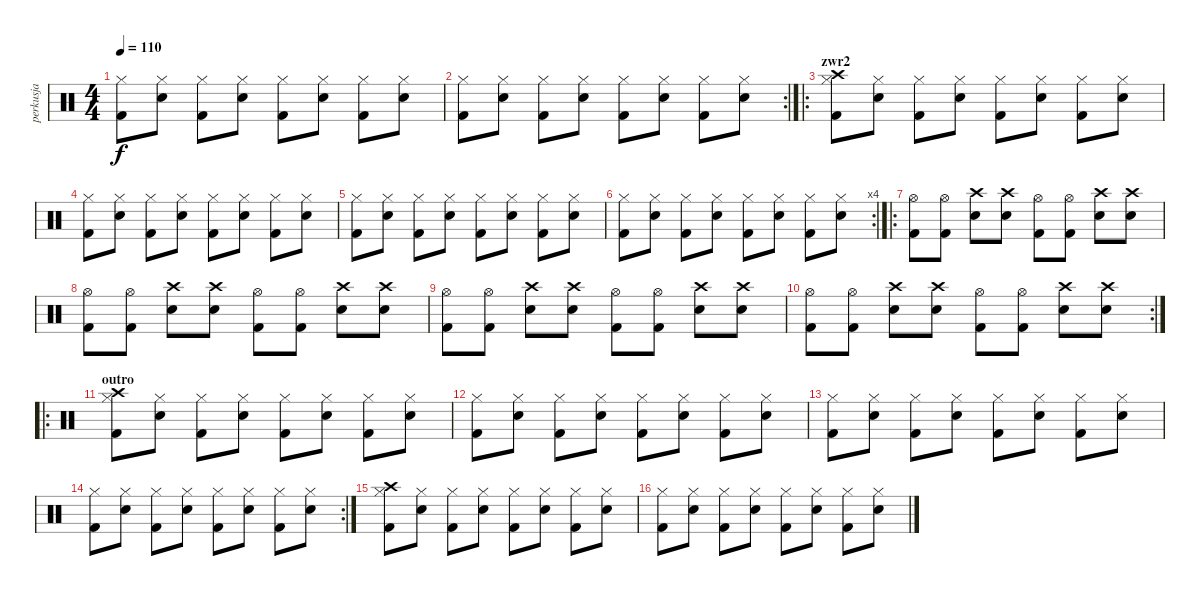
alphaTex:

\track ("perkusja" "perkusja") {instrument percussion}
\staff {score}
\articulation defaults
\ts (4 4)
\tempo 110
\clef neutral
\ks c
("Hi-Hat (closed)" "Kick (hit) 2").8{dy f} ("Hi-Hat (closed)" "Electric Snare (hit)").8 ("Hi-Hat (closed)" "Kick (hit) 2").8 ("Hi-Hat (closed)" "Electric Snare (hit)").8 ("Hi-Hat (closed)" "Kick (hit) 2").8 ("Hi-Hat (closed)" "Electric Snare (hit)").8 ("Hi-Hat (closed)" "Kick (hit) 2").8 ("Hi-Hat (closed)" "Electric Snare (hit)").8 |
\rc 2
("Hi-Hat (closed)" "Kick (hit) 2").8 ("Hi-Hat (closed)" "Electric Snare (hit)").8 ("Hi-Hat (closed)" "Kick (hit) 2").8 ("Hi-Hat (closed)" "Electric Snare (hit)").8 ("Hi-Hat (closed)" "Kick (hit) 2").8 ("Hi-Hat (closed)" "Electric Snare (hit)").8 ("Hi-Hat (closed)" "Kick (hit) 2").8 ("Hi-Hat (closed)" "Electric Snare (hit)").8 |
\ro
\section ("" "zwr2")
("Hi-Hat (closed)" "Kick (hit) 2" "Crash high (hit)").8 ("Hi-Hat (closed)" "Electric Snare (hit)").8 ("Hi-Hat (closed)" "Kick (hit) 2").8 ("Hi-Hat (closed)" "Electric Snare (hit)").8 ("Hi-Hat (closed)" "Kick (hit) 2").8 ("Hi-Hat (closed)" "Electric Snare (hit)").8 ("Hi-Hat (closed)" "Kick (hit) 2").8 ("Hi-Hat (closed)" "Electric Snare (hit)").8 |
("Hi-Hat (closed)" "Kick (hit) 2").8 ("Hi-Hat (closed)" "Electric Snare (hit)").8 ("Hi-Hat (closed)" "Kick (hit) 2").8 ("Hi-Hat (closed)" "Electric Snare (hit)").8 ("Hi-Hat (closed)" "Kick (hit) 2").8 ("Hi-Hat (closed)" "Electric Snare (hit)").8 ("Hi-Hat (closed)" "Kick (hit) 2").8 ("Hi-Hat (closed)" "Electric Snare (hit)").8 |
("Hi-Hat (closed)" "Kick (hit) 2").8 ("Hi-Hat (closed)" "Electric Snare (hit)").8 ("Hi-Hat (closed)" "Kick (hit) 2").8 ("Hi-Hat (closed)" "Electric Snare (hit)").8 ("Hi-Hat (closed)" "Kick (hit) 2").8 ("Hi-Hat (closed)" "Electric Snare (hit)").8 ("Hi-Hat (closed)" "Kick (hit) 2").8 ("Hi-Hat (closed)" "Electric Snare (hit)").8 |
\rc 4
("Hi-Hat (closed)" "Kick (hit) 2").8 ("Hi-Hat (closed)" "Electric Snare (hit)").8 ("Hi-Hat (closed)" "Kick (hit) 2").8 ("Hi-Hat (closed)" "Electric Snare (hit)").8 ("Hi-Hat (closed)" "Kick (hit) 2").8 ("Hi-Hat (closed)" "Electric Snare (hit)").8 ("Hi-Hat (closed)" "Kick (hit) 2").8 ("Hi-Hat (closed)" "Electric Snare (hit)").8 |
\ro
("Hi-Hat (open)" "Kick (hit) 2").8 ("Hi-Hat (open)" "Kick (hit) 2").8 ("Crash high (hit)" "Electric Snare (hit)").8 ("Crash high (hit)" "Electric Snare (hit)").8 ("Hi-Hat (open)" "Kick (hit) 2").8 ("Hi-Hat (open)" "Kick (hit) 2").8 ("Crash high (hit)" "Electric Snare (hit)").8 ("Crash high (hit)" "Electric Snare (hit)").8 |
("Hi-Hat (open)" "Kick (hit) 2").8 ("Hi-Hat (open)" "Kick (hit) 2").8 ("Crash high (hit)" "Electric Snare (hit)").8 ("Crash high (hit)" "Electric Snare (hit)").8 ("Hi-Hat (open)" "Kick (hit) 2").8 ("Hi-Hat (open)" "Kick (hit) 2").8 ("Crash high (hit)" "Electric Snare (hit)").8 ("Crash high (hit)" "Electric Snare (hit)").8 |
("Hi-Hat (open)" "Kick (hit) 2").8 ("Hi-Hat (open)" "Kick (hit) 2").8 ("Crash high (hit)" "Electric Snare (hit)").8 ("Crash high (hit)" "Electric Snare (hit)").8 ("Hi-Hat (open)" "Kick (hit) 2").8 ("Hi-Hat (open)" "Kick (hit) 2").8 ("Crash high (hit)" "Electric Snare (hit)").8 ("Crash high (hit)" "Electric Snare (hit)").8 |
\rc 2
("Hi-Hat (open)" "Kick (hit) 2").8 ("Hi-Hat (open)" "Kick (hit) 2").8 ("Crash high (hit)" "Electric Snare (hit)").8 ("Crash high (hit)" "Electric Snare (hit)").8 ("Hi-Hat (open)" "Kick (hit) 2").8 ("Hi-Hat (open)" "Kick (hit) 2").8 ("Crash high (hit)" "Electric Snare (hit)").8 ("Crash high (hit)" "Electric Snare (hit)").8 |
\ro
\section ("" "outro")
("Hi-Hat (closed)" "Kick (hit) 2" "Crash high (hit)").8 ("Hi-Hat (closed)" "Electric Snare (hit)").8 ("Hi-Hat (closed)" "Kick (hit) 2").8 ("Hi-Hat (closed)" "Electric Snare (hit)").8 ("Hi-Hat (closed)" "Kick (hit) 2").8 ("Hi-Hat (closed)" "Electric Snare (hit)").8 ("Hi-Hat (closed)" "Kick (hit) 2").8 ("Hi-Hat (closed)" "Electric Snare (hit)").8 |
("Hi-Hat (closed)" "Kick (hit) 2").8 ("Hi-Hat (closed)" "Electric Snare (hit)").8 ("Hi-Hat (closed)" "Kick (hit) 2").8 ("Hi-Hat (closed)" "Electric Snare (hit)").8 ("Hi-Hat (closed)" "Kick (hit) 2").8 ("Hi-Hat (closed)" "Electric Snare (hit)").8 ("Hi-Hat (closed)" "Kick (hit) 2").8 ("Hi-Hat (closed)" "Electric Snare (hit)").8 |
("Hi-Hat (closed)" "Kick (hit) 2").8 ("Hi-Hat (closed)" "Electric Snare (hit)").8 ("Hi-Hat (closed)" "Kick (hit) 2").8 ("Hi-Hat (closed)" "Electric Snare (hit)").8 ("Hi-Hat (closed)" "Kick (hit) 2").8 ("Hi-Hat (closed)" "Electric Snare (hit)").8 ("Hi-Hat (closed)" "Kick (hit) 2").8 ("Hi-Hat (closed)" "Electric Snare (hit)").8 |
\rc 2
("Hi-Hat (closed)" "Kick (hit) 2").8 ("Hi-Hat (closed)" "Electric Snare (hit)").8 ("Hi-Hat (closed)" "Kick (hit) 2").8 ("Hi-Hat (closed)" "Electric Snare (hit)").8 ("Hi-Hat (closed)" "Kick (hit) 2").8 ("Hi-Hat (closed)" "Electric Snare (hit)").8 ("Hi-Hat (closed)" "Kick (hit) 2").8 ("Hi-Hat (closed)" "Electric Snare (hit)").8 |
("Hi-Hat (closed)" "Kick (hit) 2" "Crash high (hit)").8 ("Hi-Hat (closed)" "Electric Snare (hit)").8 ("Hi-Hat (closed)" "Kick (hit) 2").8 ("Hi-Hat (closed)" "Electric Snare (hit)").8 ("Hi-Hat (closed)" "Kick (hit) 2").8 ("Hi-Hat (closed)" "Electric Snare (hit)").8 ("Hi-Hat (closed)" "Kick (hit) 2").8 ("Hi-Hat (closed)" "Electric Snare (hit)").8 |
("Hi-Hat (closed)" "Kick (hit) 2").8 ("Hi-Hat (closed)" "Electric Snare (hit)").8 ("Hi-Hat (closed)" "Kick (hit) 2").8 ("Hi-Hat (closed)" "Electric Snare (hit)").8 ("Hi-Hat (closed)" "Kick (hit) 2").8 ("Hi-Hat (closed)" "Electric Snare (hit)").8 ("Hi-Hat (closed)" "Kick (hit) 2").8 ("Hi-Hat (closed)" "Electric Snare (hit)").8
